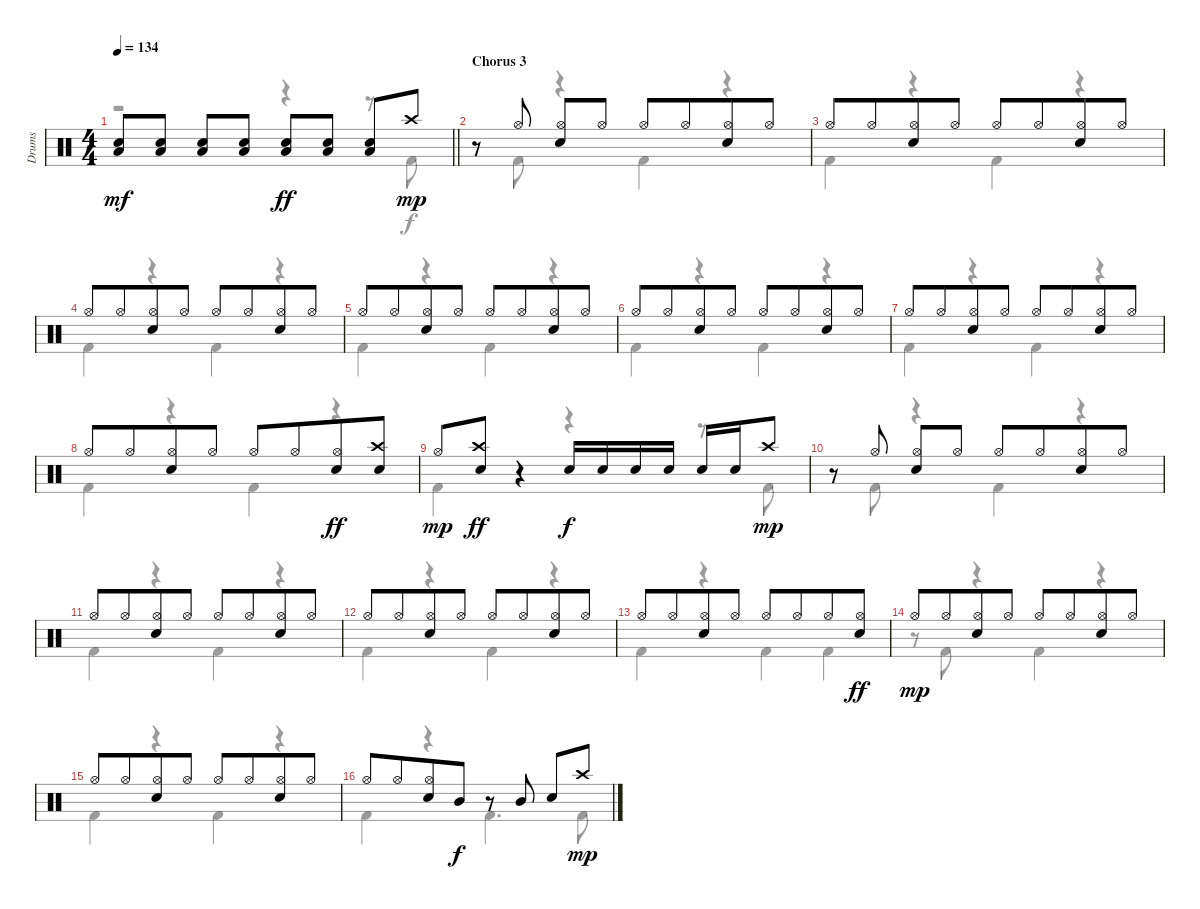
\track ("Drums" "Drums") {instrument percussion}
\staff {score}
\articulation defaults
\voice
\ts (4 4)
\tempo 134
\clef neutral
\barLineRight lightlight
\ks aminor
("Electric Snare (hit)" "Low Tom (hit)").8{dy mf} ("Electric Snare (hit)" "Low Tom (hit)").8 ("Electric Snare (hit)" "Low Tom (hit)").8 ("Electric Snare (hit)" "Low Tom (hit)").8 ("Electric Snare (hit)" "Low Tom (hit)").8{dy ff} ("Electric Snare (hit)" "Low Tom (hit)").8 ("Electric Snare (hit)" "Low Tom (hit)").8 "Crash high (hit)".8{dy mp} |
\section ("" "Chorus 3")
\ks c
r.8 "Hi-Hat (open)".8 ("Hi-Hat (open)" "Electric Snare (hit)").8 "Hi-Hat (open)".8 "Hi-Hat (open)".8 "Hi-Hat (open)".8{beam merge} ("Hi-Hat (open)" "Electric Snare (hit)").8 "Hi-Hat (open)".8 |
"Hi-Hat (open)".8 "Hi-Hat (open)".8{beam merge} ("Hi-Hat (open)" "Electric Snare (hit)").8 "Hi-Hat (open)".8 "Hi-Hat (open)".8 "Hi-Hat (open)".8{beam merge} ("Hi-Hat (open)" "Electric Snare (hit)").8 "Hi-Hat (open)".8 |
"Hi-Hat (open)".8 "Hi-Hat (open)".8{beam merge} ("Hi-Hat (open)" "Electric Snare (hit)").8 "Hi-Hat (open)".8 "Hi-Hat (open)".8 "Hi-Hat (open)".8{beam merge} ("Hi-Hat (open)" "Electric Snare (hit)").8 "Hi-Hat (open)".8 |
"Hi-Hat (open)".8 "Hi-Hat (open)".8{beam merge} ("Hi-Hat (open)" "Electric Snare (hit)").8 "Hi-Hat (open)".8 "Hi-Hat (open)".8 "Hi-Hat (open)".8{beam merge} ("Hi-Hat (open)" "Electric Snare (hit)").8 "Hi-Hat (open)".8 |
"Hi-Hat (open)".8 "Hi-Hat (open)".8{beam merge} ("Hi-Hat (open)" "Electric Snare (hit)").8 "Hi-Hat (open)".8 "Hi-Hat (open)".8 "Hi-Hat (open)".8{beam merge} ("Hi-Hat (open)" "Electric Snare (hit)").8 "Hi-Hat (open)".8 |
"Hi-Hat (open)".8 "Hi-Hat (open)".8{beam merge} ("Hi-Hat (open)" "Electric Snare (hit)").8 "Hi-Hat (open)".8 "Hi-Hat (open)".8 "Hi-Hat (open)".8{beam merge} ("Hi-Hat (open)" "Electric Snare (hit)").8 "Hi-Hat (open)".8 |
"Hi-Hat (open)".8 "Hi-Hat (open)".8{beam merge} ("Hi-Hat (open)" "Electric Snare (hit)").8 "Hi-Hat (open)".8 "Hi-Hat (open)".8 "Hi-Hat (open)".8{beam merge} ("Hi-Hat (open)" "Electric Snare (hit)").8{dy ff} ("Crash high (hit)" "Electric Snare (hit)").8 |
"Hi-Hat (open)".8{dy mp} ("Crash high (hit)" "Electric Snare (hit)").8{dy ff} r.4 "Electric Snare (hit)".16{dy f} "Electric Snare (hit)".16 "Electric Snare (hit)".16 "Electric Snare (hit)".16 "Electric Snare (hit)".16 "Electric Snare (hit)".16 "Crash high (hit)".8{dy mp} |
r.8 "Hi-Hat (open)".8 ("Hi-Hat (open)" "Electric Snare (hit)").8 "Hi-Hat (open)".8 "Hi-Hat (open)".8 "Hi-Hat (open)".8{beam merge} ("Hi-Hat (open)" "Electric Snare (hit)").8 "Hi-Hat (open)".8 |
"Hi-Hat (open)".8 "Hi-Hat (open)".8{beam merge} ("Hi-Hat (open)" "Electric Snare (hit)").8 "Hi-Hat (open)".8 "Hi-Hat (open)".8 "Hi-Hat (open)".8{beam merge} ("Hi-Hat (open)" "Electric Snare (hit)").8 "Hi-Hat (open)".8 |
"Hi-Hat (open)".8 "Hi-Hat (open)".8{beam merge} ("Hi-Hat (open)" "Electric Snare (hit)").8 "Hi-Hat (open)".8 "Hi-Hat (open)".8 "Hi-Hat (open)".8{beam merge} ("Hi-Hat (open)" "Electric Snare (hit)").8 "Hi-Hat (open)".8 |
"Hi-Hat (open)".8 "Hi-Hat (open)".8{beam merge} ("Hi-Hat (open)" "Electric Snare (hit)").8 "Hi-Hat (open)".8 "Hi-Hat (open)".8 "Hi-Hat (open)".8{beam merge} "Hi-Hat (open)".8 ("Hi-Hat (open)" "Electric Snare (hit)").8{dy ff} |
"Hi-Hat (open)".8{dy mp} "Hi-Hat (open)".8{beam merge} ("Hi-Hat (open)" "Electric Snare (hit)").8 "Hi-Hat (open)".8 "Hi-Hat (open)".8 "Hi-Hat (open)".8{beam merge} ("Hi-Hat (open)" "Electric Snare (hit)").8 "Hi-Hat (open)".8 |
"Hi-Hat (open)".8 "Hi-Hat (open)".8{beam merge} ("Hi-Hat (open)" "Electric Snare (hit)").8 "Hi-Hat (open)".8 "Hi-Hat (open)".8 "Hi-Hat (open)".8{beam merge} ("Hi-Hat (open)" "Electric Snare (hit)").8 "Hi-Hat (open)".8 |
\ks aminor "Hi-Hat (open)".8 "Hi-Hat (open)".8{beam merge}
("Hi-Hat (open)" "Electric Snare (hit)").8 "Mid Tom (hit)".8{dy f} r.8 "Mid Tom (hit)".8 "Electric Snare (hit)".8 "Crash high (hit)".8{dy mp}
\voice
\clef neutral
\ottava regular
\simile none
\barLineRight lightlight
\ks aminor
r.2{dy f} r.4 r.8 "Kick (hit) 2".8 |
\ks c
r.8 "Kick (hit) 2".8 r.4 "Kick (hit) 2".4 r.4 |
"Kick (hit) 2".4 r.4 "Kick (hit) 2".4 r.4 |
"Kick (hit) 2".4 r.4 "Kick (hit) 2".4 r.4 |
"Kick (hit) 2".4 r.4 "Kick (hit) 2".4 r.4 |
"Kick (hit) 2".4 r.4 "Kick (hit) 2".4 r.4 |
"Kick (hit) 2".4 r.4 "Kick (hit) 2".4 r.4 |
"Kick (hit) 2".4 r.4 "Kick (hit) 2".4 r.4 |
"Kick (hit) 2".4 r.4 r.4 r.8 "Kick (hit) 2".8 |
r.8 "Kick (hit) 2".8 r.4 "Kick (hit) 2".4 r.4 |
"Kick (hit) 2".4 r.4 "Kick (hit) 2".4 r.4 |
"Kick (hit) 2".4 r.4 "Kick (hit) 2".4 r.4 |
"Kick (hit) 2".4 r.4 "Kick (hit) 2".4 "Kick (hit) 2".4 |
r.8 "Kick (hit) 2".8 r.4 "Kick (hit) 2".4 r.4 |
"Kick (hit) 2".4 r.4 "Kick (hit) 2".4 r.4 |
\ks aminor "Kick (hit) 2".4
r.4 "Kick (hit) 2".4{d} "Kick (hit) 2".8
